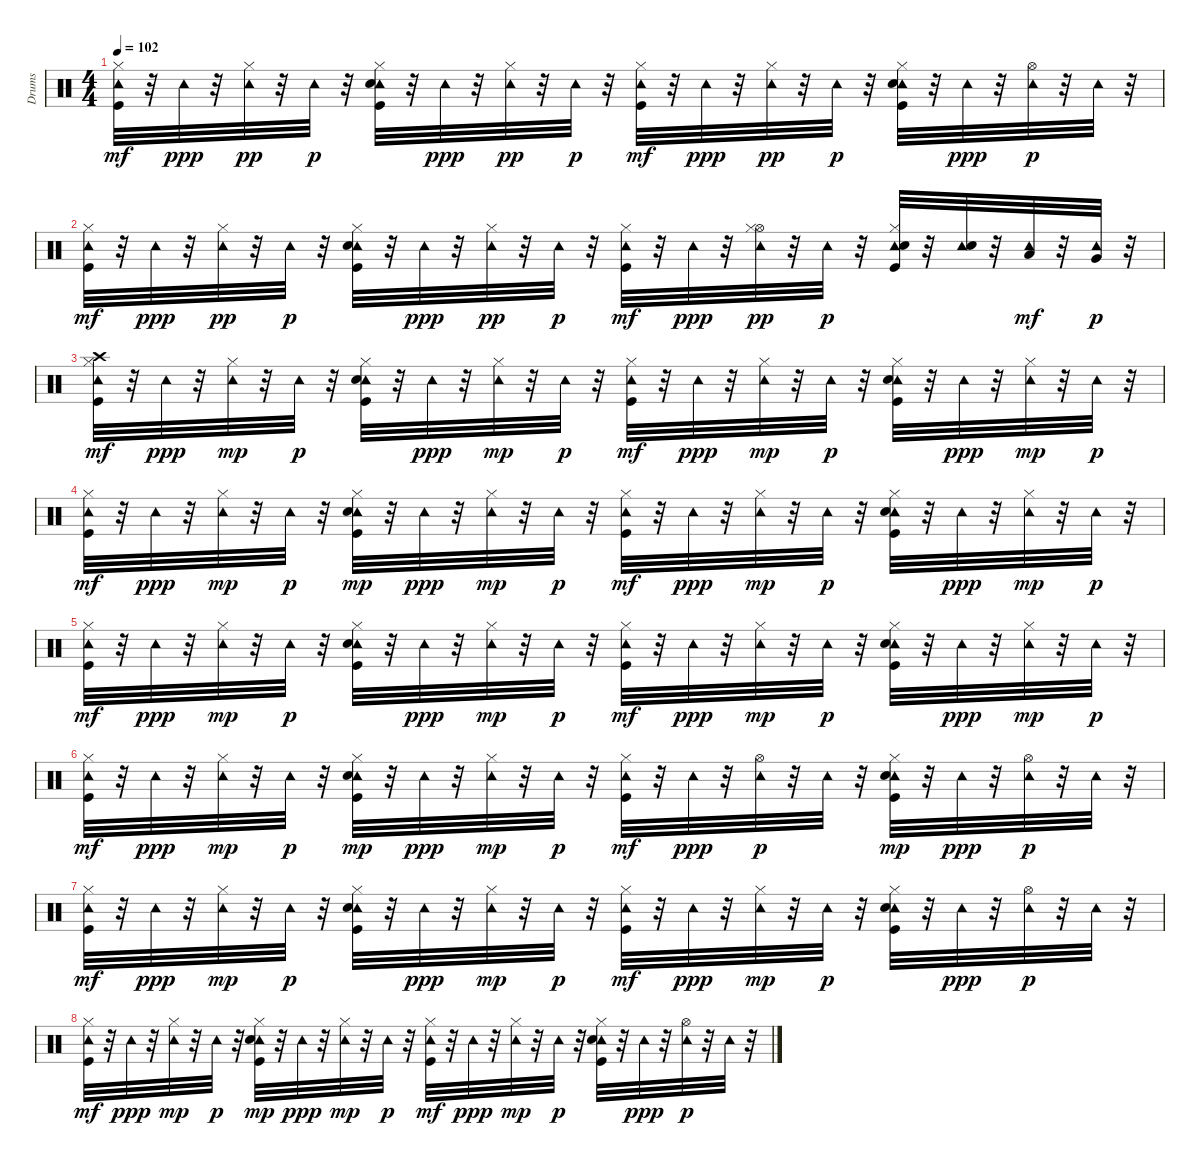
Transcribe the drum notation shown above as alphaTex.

\track ("Drums" "Drums") {instrument percussion}
\staff {score}
\articulation defaults
\ts (4 4)
\tempo 102
\clef neutral
\ks c
("Tambourine (hit)" "Hi-Hat (closed)" "Kick (hit)").32{dy mf} r.32 "Tambourine (hit)".32{dy ppp} r.32 ("Tambourine (hit)" "Hi-Hat (closed)").32{dy pp} r.32 "Tambourine (hit)".32{dy p} r.32 ("Tambourine (hit)" "Hi-Hat (closed)" "Electric Snare (hit)" "Kick (hit)").32 r.32 "Tambourine (hit)".32{dy ppp} r.32 ("Tambourine (hit)" "Hi-Hat (closed)").32{dy pp} r.32 "Tambourine (hit)".32{dy p} r.32 ("Tambourine (hit)" "Hi-Hat (closed)" "Kick (hit)").32{dy mf} r.32 "Tambourine (hit)".32{dy ppp} r.32 ("Tambourine (hit)" "Hi-Hat (closed)").32{dy pp} r.32 "Tambourine (hit)".32{dy p} r.32 ("Tambourine (hit)" "Hi-Hat (closed)" "Electric Snare (hit)" "Kick (hit)").32 r.32 "Tambourine (hit)".32{dy ppp} r.32 ("Tambourine (hit)" "Hi-Hat (open)").32{dy p} r.32 "Tambourine (hit)".32 r.32 |
("Tambourine (hit)" "Hi-Hat (closed)" "Kick (hit)").32{dy mf} r.32 "Tambourine (hit)".32{dy ppp} r.32 ("Tambourine (hit)" "Hi-Hat (closed)").32{dy pp} r.32 "Tambourine (hit)".32{dy p} r.32 ("Tambourine (hit)" "Hi-Hat (closed)" "Electric Snare (hit)" "Kick (hit)").32 r.32 "Tambourine (hit)".32{dy ppp} r.32 ("Tambourine (hit)" "Hi-Hat (closed)").32{dy pp} r.32 "Tambourine (hit)".32{dy p} r.32 ("Tambourine (hit)" "Hi-Hat (closed)" "Kick (hit)").32{dy mf} r.32 "Tambourine (hit)".32{dy ppp} r.32 ("Tambourine (hit)" "Hi-Hat (open)" "Hi-Hat (closed)").32{dy pp} r.32 "Tambourine (hit)".32{dy p} r.32 ("Tambourine (hit)" "Hi-Hat (closed)" "Electric Snare (hit)" "Kick (hit)").32 r.32 ("Tambourine (hit)" "Electric Snare (hit)").32 r.32 ("Tambourine (hit)" "Low Tom (hit)").32{dy mf} r.32 ("Tambourine (hit)" "Very Low Tom (hit)").32{dy p} r.32 |
("Crash high (hit)" "Tambourine (hit)" "Hi-Hat (closed)" "Kick (hit)").32{dy mf} r.32 "Tambourine (hit)".32{dy ppp} r.32 ("Tambourine (hit)" "Hi-Hat (closed)").32{dy mp} r.32 "Tambourine (hit)".32{dy p} r.32 ("Tambourine (hit)" "Hi-Hat (closed)" "Electric Snare (hit)" "Kick (hit)").32 r.32 "Tambourine (hit)".32{dy ppp} r.32 ("Tambourine (hit)" "Hi-Hat (closed)").32{dy mp} r.32 "Tambourine (hit)".32{dy p} r.32 ("Tambourine (hit)" "Hi-Hat (closed)" "Kick (hit)").32{dy mf} r.32 "Tambourine (hit)".32{dy ppp} r.32 ("Tambourine (hit)" "Hi-Hat (closed)").32{dy mp} r.32 "Tambourine (hit)".32{dy p} r.32 ("Tambourine (hit)" "Hi-Hat (closed)" "Electric Snare (hit)" "Kick (hit)").32 r.32 "Tambourine (hit)".32{dy ppp} r.32 ("Tambourine (hit)" "Hi-Hat (closed)").32{dy mp} r.32 "Tambourine (hit)".32{dy p} r.32 |
("Tambourine (hit)" "Hi-Hat (closed)" "Kick (hit)").32{dy mf} r.32 "Tambourine (hit)".32{dy ppp} r.32 ("Tambourine (hit)" "Hi-Hat (closed)").32{dy mp} r.32 "Tambourine (hit)".32{dy p} r.32 ("Tambourine (hit)" "Hi-Hat (closed)" "Electric Snare (hit)" "Kick (hit)").32{dy mp} r.32 "Tambourine (hit)".32{dy ppp} r.32 ("Tambourine (hit)" "Hi-Hat (closed)").32{dy mp} r.32 "Tambourine (hit)".32{dy p} r.32 ("Tambourine (hit)" "Hi-Hat (closed)" "Kick (hit)").32{dy mf} r.32 "Tambourine (hit)".32{dy ppp} r.32 ("Tambourine (hit)" "Hi-Hat (closed)").32{dy mp} r.32 "Tambourine (hit)".32{dy p} r.32 ("Tambourine (hit)" "Hi-Hat (closed)" "Electric Snare (hit)" "Kick (hit)").32 r.32 "Tambourine (hit)".32{dy ppp} r.32 ("Tambourine (hit)" "Hi-Hat (closed)").32{dy mp} r.32 "Tambourine (hit)".32{dy p} r.32 |
("Tambourine (hit)" "Hi-Hat (closed)" "Kick (hit)").32{dy mf} r.32 "Tambourine (hit)".32{dy ppp} r.32 ("Tambourine (hit)" "Hi-Hat (closed)").32{dy mp} r.32 "Tambourine (hit)".32{dy p} r.32 ("Tambourine (hit)" "Hi-Hat (closed)" "Electric Snare (hit)" "Kick (hit)").32 r.32 "Tambourine (hit)".32{dy ppp} r.32 ("Tambourine (hit)" "Hi-Hat (closed)").32{dy mp} r.32 "Tambourine (hit)".32{dy p} r.32 ("Tambourine (hit)" "Hi-Hat (closed)" "Kick (hit)").32{dy mf} r.32 "Tambourine (hit)".32{dy ppp} r.32 ("Tambourine (hit)" "Hi-Hat (closed)").32{dy mp} r.32 "Tambourine (hit)".32{dy p} r.32 ("Tambourine (hit)" "Hi-Hat (closed)" "Electric Snare (hit)" "Kick (hit)").32 r.32 "Tambourine (hit)".32{dy ppp} r.32 ("Tambourine (hit)" "Hi-Hat (closed)").32{dy mp} r.32 "Tambourine (hit)".32{dy p} r.32 |
("Tambourine (hit)" "Hi-Hat (closed)" "Kick (hit)").32{dy mf} r.32 "Tambourine (hit)".32{dy ppp} r.32 ("Tambourine (hit)" "Hi-Hat (closed)").32{dy mp} r.32 "Tambourine (hit)".32{dy p} r.32 ("Tambourine (hit)" "Hi-Hat (closed)" "Electric Snare (hit)" "Kick (hit)").32{dy mp} r.32 "Tambourine (hit)".32{dy ppp} r.32 ("Tambourine (hit)" "Hi-Hat (closed)").32{dy mp} r.32 "Tambourine (hit)".32{dy p} r.32 ("Tambourine (hit)" "Hi-Hat (closed)" "Kick (hit)").32{dy mf} r.32 "Tambourine (hit)".32{dy ppp} r.32 ("Tambourine (hit)" "Hi-Hat (open)").32{dy p} r.32 "Tambourine (hit)".32 r.32 ("Tambourine (hit)" "Hi-Hat (closed)" "Electric Snare (hit)" "Kick (hit)").32{dy mp} r.32 "Tambourine (hit)".32{dy ppp} r.32 ("Tambourine (hit)" "Hi-Hat (open)").32{dy p} r.32 "Tambourine (hit)".32 r.32 |
("Tambourine (hit)" "Hi-Hat (closed)" "Kick (hit)").32{dy mf} r.32 "Tambourine (hit)".32{dy ppp} r.32 ("Tambourine (hit)" "Hi-Hat (closed)").32{dy mp} r.32 "Tambourine (hit)".32{dy p} r.32 ("Tambourine (hit)" "Hi-Hat (closed)" "Electric Snare (hit)" "Kick (hit)").32 r.32 "Tambourine (hit)".32{dy ppp} r.32 ("Tambourine (hit)" "Hi-Hat (closed)").32{dy mp} r.32 "Tambourine (hit)".32{dy p} r.32 ("Tambourine (hit)" "Hi-Hat (closed)" "Kick (hit)").32{dy mf} r.32 "Tambourine (hit)".32{dy ppp} r.32 ("Tambourine (hit)" "Hi-Hat (closed)").32{dy mp} r.32 "Tambourine (hit)".32{dy p} r.32 ("Tambourine (hit)" "Hi-Hat (closed)" "Electric Snare (hit)" "Kick (hit)").32 r.32 "Tambourine (hit)".32{dy ppp} r.32 ("Tambourine (hit)" "Hi-Hat (open)").32{dy p} r.32 "Tambourine (hit)".32 r.32 |
("Tambourine (hit)" "Hi-Hat (closed)" "Kick (hit)").32{dy mf} r.32 "Tambourine (hit)".32{dy ppp} r.32 ("Tambourine (hit)" "Hi-Hat (closed)").32{dy mp} r.32 "Tambourine (hit)".32{dy p} r.32 ("Tambourine (hit)" "Hi-Hat (closed)" "Electric Snare (hit)" "Kick (hit)").32{dy mp} r.32 "Tambourine (hit)".32{dy ppp} r.32 ("Tambourine (hit)" "Hi-Hat (closed)").32{dy mp} r.32 "Tambourine (hit)".32{dy p} r.32 ("Tambourine (hit)" "Hi-Hat (closed)" "Kick (hit)").32{dy mf} r.32 "Tambourine (hit)".32{dy ppp} r.32 ("Tambourine (hit)" "Hi-Hat (closed)").32{dy mp} r.32 "Tambourine (hit)".32{dy p} r.32 ("Tambourine (hit)" "Hi-Hat (closed)" "Electric Snare (hit)" "Kick (hit)").32 r.32 "Tambourine (hit)".32{dy ppp} r.32 ("Tambourine (hit)" "Hi-Hat (open)").32{dy p} r.32 "Tambourine (hit)".32 r.32
